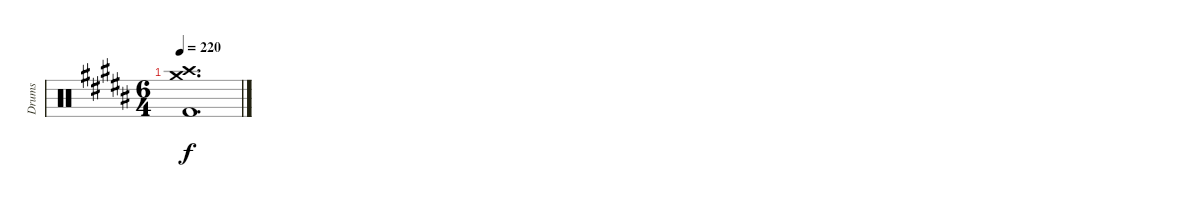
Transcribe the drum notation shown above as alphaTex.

\track ("Drums" "Drums") {instrument percussion}
\staff {score}
\articulation defaults
\ts (6 4)
\tempo 220
\clef neutral
\ks g#minor
("Crash high (hit)" "Crash medium (hit)" "Kick (hit) 2").1{d dy f}
